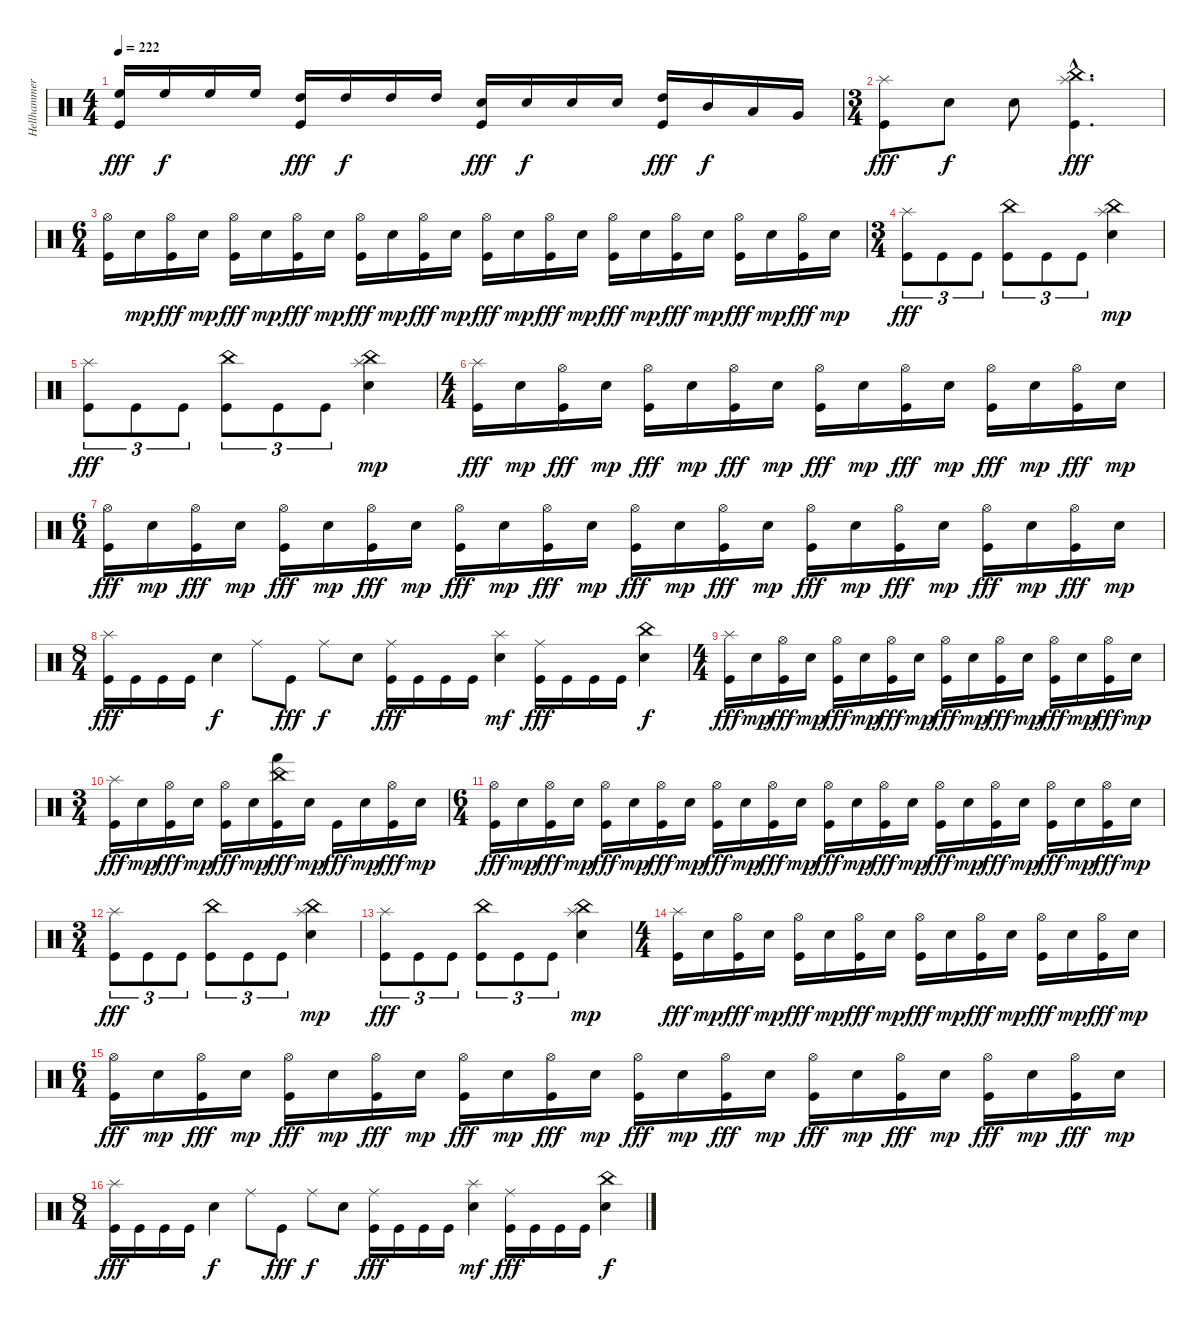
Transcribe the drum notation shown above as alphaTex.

\track ("Hellhammer" "Hellhammer") {instrument percussion}
\staff {score}
\articulation defaults
\ts (4 4)
\tempo 222
\clef neutral
\ks c
("High Floor Tom (hit)" "Kick (hit)").16{dy fff} "High Floor Tom (hit)".16{dy f} "High Floor Tom (hit)".16 "High Floor Tom (hit)".16 ("High Tom (hit)" "Kick (hit)").16{dy fff} "High Tom (hit)".16{dy f} "High Tom (hit)".16 "High Tom (hit)".16 ("Electric Snare (hit)" "Kick (hit)").16{dy fff} "Electric Snare (hit)".16{dy f} "Electric Snare (hit)".16 "Electric Snare (hit)".16 ("High Tom (hit)" "Kick (hit)").16{dy fff} "Mid Tom (hit)".16{dy f} "Low Tom (hit)".16 "Very Low Tom (hit)".16 |
\ts (3 4)
("Splash (hit)" "Kick (hit)").8{dy fff} "Electric Snare (hit)".8{dy f} "Electric Snare (hit)".8 ("Splash (hit)"{hac} "China (hit)"{hac} "Kick (hit)"{hac}).4{d dy fff} |
\ts (6 4)
("Hi-Hat (open)" "Kick (hit)").16 "Electric Snare (hit)".16{dy mp} ("Hi-Hat (open)" "Kick (hit)").16{dy fff} "Electric Snare (hit)".16{dy mp} ("Hi-Hat (open)" "Kick (hit)").16{dy fff} "Electric Snare (hit)".16{dy mp} ("Hi-Hat (open)" "Kick (hit)").16{dy fff} "Electric Snare (hit)".16{dy mp} ("Hi-Hat (open)" "Kick (hit)").16{dy fff} "Electric Snare (hit)".16{dy mp} ("Hi-Hat (open)" "Kick (hit)").16{dy fff} "Electric Snare (hit)".16{dy mp} ("Hi-Hat (open)" "Kick (hit)").16{dy fff} "Electric Snare (hit)".16{dy mp} ("Hi-Hat (open)" "Kick (hit)").16{dy fff} "Electric Snare (hit)".16{dy mp} ("Hi-Hat (open)" "Kick (hit)").16{dy fff} "Electric Snare (hit)".16{dy mp} ("Hi-Hat (open)" "Kick (hit)").16{dy fff} "Electric Snare (hit)".16{dy mp} ("Hi-Hat (open)" "Kick (hit)").16{dy fff} "Electric Snare (hit)".16{dy mp} ("Hi-Hat (open)" "Kick (hit)").16{dy fff} "Electric Snare (hit)".16{dy mp} |
\ts (3 4)
("Splash (hit)" "Kick (hit)").8{tu (3 2) dy fff} "Kick (hit)".8{tu (3 2)} "Kick (hit)".8{tu (3 2)} ("China (hit)" "Kick (hit)").8{tu (3 2)} "Kick (hit)".8{tu (3 2)} "Kick (hit)".8{tu (3 2)} ("Splash (hit)" "China (hit)" "Electric Snare (hit)").4{dy mp} |
("Splash (hit)" "Kick (hit)").8{tu (3 2) dy fff} "Kick (hit)".8{tu (3 2)} "Kick (hit)".8{tu (3 2)} ("China (hit)" "Kick (hit)").8{tu (3 2)} "Kick (hit)".8{tu (3 2)} "Kick (hit)".8{tu (3 2)} ("Splash (hit)" "China (hit)" "Electric Snare (hit)").4{dy mp} |
\ts (4 4)
("Splash (hit)" "Kick (hit)").16{dy fff} "Electric Snare (hit)".16{dy mp} ("Hi-Hat (open)" "Kick (hit)").16{dy fff} "Electric Snare (hit)".16{dy mp} ("Hi-Hat (open)" "Kick (hit)").16{dy fff} "Electric Snare (hit)".16{dy mp} ("Hi-Hat (open)" "Kick (hit)").16{dy fff} "Electric Snare (hit)".16{dy mp} ("Hi-Hat (open)" "Kick (hit)").16{dy fff} "Electric Snare (hit)".16{dy mp} ("Hi-Hat (open)" "Kick (hit)").16{dy fff} "Electric Snare (hit)".16{dy mp} ("Hi-Hat (open)" "Kick (hit)").16{dy fff} "Electric Snare (hit)".16{dy mp} ("Hi-Hat (open)" "Kick (hit)").16{dy fff} "Electric Snare (hit)".16{dy mp} |
\ts (6 4)
("Hi-Hat (open)" "Kick (hit)").16{dy fff} "Electric Snare (hit)".16{dy mp} ("Hi-Hat (open)" "Kick (hit)").16{dy fff} "Electric Snare (hit)".16{dy mp} ("Hi-Hat (open)" "Kick (hit)").16{dy fff} "Electric Snare (hit)".16{dy mp} ("Hi-Hat (open)" "Kick (hit)").16{dy fff} "Electric Snare (hit)".16{dy mp} ("Hi-Hat (open)" "Kick (hit)").16{dy fff} "Electric Snare (hit)".16{dy mp} ("Hi-Hat (open)" "Kick (hit)").16{dy fff} "Electric Snare (hit)".16{dy mp} ("Hi-Hat (open)" "Kick (hit)").16{dy fff} "Electric Snare (hit)".16{dy mp} ("Hi-Hat (open)" "Kick (hit)").16{dy fff} "Electric Snare (hit)".16{dy mp} ("Hi-Hat (open)" "Kick (hit)").16{dy fff} "Electric Snare (hit)".16{dy mp} ("Hi-Hat (open)" "Kick (hit)").16{dy fff} "Electric Snare (hit)".16{dy mp} ("Hi-Hat (open)" "Kick (hit)").16{dy fff} "Electric Snare (hit)".16{dy mp} ("Hi-Hat (open)" "Kick (hit)").16{dy fff} "Electric Snare (hit)".16{dy mp} |
\ts (8 4)
("Splash (hit)" "Kick (hit)").16{dy fff} "Kick (hit)".16 "Kick (hit)".16 "Kick (hit)".16 "Electric Snare (hit)".4{dy f} "Ride (middle)".8 "Kick (hit)".8{dy fff} "Ride (middle)".8{dy f} "Electric Snare (hit)".8 ("Ride (middle)" "Kick (hit)").16{dy fff} "Kick (hit)".16 "Kick (hit)".16 "Kick (hit)".16 ("Splash (hit)" "Electric Snare (hit)").4{dy mf} ("Ride (middle)" "Kick (hit)").16{dy fff} "Kick (hit)".16 "Kick (hit)".16 "Kick (hit)".16 ("China (hit)" "Electric Snare (hit)").4{dy f} |
\ts (4 4)
("Splash (hit)" "Kick (hit)").16{dy fff} "Electric Snare (hit)".16{dy mp} ("Hi-Hat (open)" "Kick (hit)").16{dy fff} "Electric Snare (hit)".16{dy mp} ("Hi-Hat (open)" "Kick (hit)").16{dy fff} "Electric Snare (hit)".16{dy mp} ("Hi-Hat (open)" "Kick (hit)").16{dy fff} "Electric Snare (hit)".16{dy mp} ("Hi-Hat (open)" "Kick (hit)").16{dy fff} "Electric Snare (hit)".16{dy mp} ("Hi-Hat (open)" "Kick (hit)").16{dy fff} "Electric Snare (hit)".16{dy mp} ("Hi-Hat (open)" "Kick (hit)").16{dy fff} "Electric Snare (hit)".16{dy mp} ("Hi-Hat (open)" "Kick (hit)").16{dy fff} "Electric Snare (hit)".16{dy mp} |
\ts (3 4)
("Splash (hit)" "Kick (hit)").16{dy fff} "Electric Snare (hit)".16{dy mp} ("Hi-Hat (open)" "Kick (hit)").16{dy fff} "Electric Snare (hit)".16{dy mp} ("Hi-Hat (open)" "Kick (hit)").16{dy fff} "Electric Snare (hit)".16{dy mp} ("China (hit)" "Hand (hit)" "Kick (hit)").16{dy fff} "Electric Snare (hit)".16{dy mp} "Kick (hit)".16{dy fff} "Electric Snare (hit)".16{dy mp} ("Hi-Hat (open)" "Kick (hit)").16{dy fff} "Electric Snare (hit)".16{dy mp} |
\ts (6 4)
("Hi-Hat (open)" "Kick (hit)").16{dy fff} "Electric Snare (hit)".16{dy mp} ("Hi-Hat (open)" "Kick (hit)").16{dy fff} "Electric Snare (hit)".16{dy mp} ("Hi-Hat (open)" "Kick (hit)").16{dy fff} "Electric Snare (hit)".16{dy mp} ("Hi-Hat (open)" "Kick (hit)").16{dy fff} "Electric Snare (hit)".16{dy mp} ("Hi-Hat (open)" "Kick (hit)").16{dy fff} "Electric Snare (hit)".16{dy mp} ("Hi-Hat (open)" "Kick (hit)").16{dy fff} "Electric Snare (hit)".16{dy mp} ("Hi-Hat (open)" "Kick (hit)").16{dy fff} "Electric Snare (hit)".16{dy mp} ("Hi-Hat (open)" "Kick (hit)").16{dy fff} "Electric Snare (hit)".16{dy mp} ("Hi-Hat (open)" "Kick (hit)").16{dy fff} "Electric Snare (hit)".16{dy mp} ("Hi-Hat (open)" "Kick (hit)").16{dy fff} "Electric Snare (hit)".16{dy mp} ("Hi-Hat (open)" "Kick (hit)").16{dy fff} "Electric Snare (hit)".16{dy mp} ("Hi-Hat (open)" "Kick (hit)").16{dy fff} "Electric Snare (hit)".16{dy mp} |
\ts (3 4)
("Splash (hit)" "Kick (hit)").8{tu (3 2) dy fff} "Kick (hit)".8{tu (3 2)} "Kick (hit)".8{tu (3 2)} ("China (hit)" "Kick (hit)").8{tu (3 2)} "Kick (hit)".8{tu (3 2)} "Kick (hit)".8{tu (3 2)} ("Splash (hit)" "China (hit)" "Electric Snare (hit)").4{dy mp} |
("Splash (hit)" "Kick (hit)").8{tu (3 2) dy fff} "Kick (hit)".8{tu (3 2)} "Kick (hit)".8{tu (3 2)} ("China (hit)" "Kick (hit)").8{tu (3 2)} "Kick (hit)".8{tu (3 2)} "Kick (hit)".8{tu (3 2)} ("Splash (hit)" "China (hit)" "Electric Snare (hit)").4{dy mp} |
\ts (4 4)
("Splash (hit)" "Kick (hit)").16{dy fff} "Electric Snare (hit)".16{dy mp} ("Hi-Hat (open)" "Kick (hit)").16{dy fff} "Electric Snare (hit)".16{dy mp} ("Hi-Hat (open)" "Kick (hit)").16{dy fff} "Electric Snare (hit)".16{dy mp} ("Hi-Hat (open)" "Kick (hit)").16{dy fff} "Electric Snare (hit)".16{dy mp} ("Hi-Hat (open)" "Kick (hit)").16{dy fff} "Electric Snare (hit)".16{dy mp} ("Hi-Hat (open)" "Kick (hit)").16{dy fff} "Electric Snare (hit)".16{dy mp} ("Hi-Hat (open)" "Kick (hit)").16{dy fff} "Electric Snare (hit)".16{dy mp} ("Hi-Hat (open)" "Kick (hit)").16{dy fff} "Electric Snare (hit)".16{dy mp} |
\ts (6 4)
("Hi-Hat (open)" "Kick (hit)").16{dy fff} "Electric Snare (hit)".16{dy mp} ("Hi-Hat (open)" "Kick (hit)").16{dy fff} "Electric Snare (hit)".16{dy mp} ("Hi-Hat (open)" "Kick (hit)").16{dy fff} "Electric Snare (hit)".16{dy mp} ("Hi-Hat (open)" "Kick (hit)").16{dy fff} "Electric Snare (hit)".16{dy mp} ("Hi-Hat (open)" "Kick (hit)").16{dy fff} "Electric Snare (hit)".16{dy mp} ("Hi-Hat (open)" "Kick (hit)").16{dy fff} "Electric Snare (hit)".16{dy mp} ("Hi-Hat (open)" "Kick (hit)").16{dy fff} "Electric Snare (hit)".16{dy mp} ("Hi-Hat (open)" "Kick (hit)").16{dy fff} "Electric Snare (hit)".16{dy mp} ("Hi-Hat (open)" "Kick (hit)").16{dy fff} "Electric Snare (hit)".16{dy mp} ("Hi-Hat (open)" "Kick (hit)").16{dy fff} "Electric Snare (hit)".16{dy mp} ("Hi-Hat (open)" "Kick (hit)").16{dy fff} "Electric Snare (hit)".16{dy mp} ("Hi-Hat (open)" "Kick (hit)").16{dy fff} "Electric Snare (hit)".16{dy mp} |
\ts (8 4)
("Splash (hit)" "Kick (hit)").16{dy fff} "Kick (hit)".16 "Kick (hit)".16 "Kick (hit)".16 "Electric Snare (hit)".4{dy f} "Ride (middle)".8 "Kick (hit)".8{dy fff} "Ride (middle)".8{dy f} "Electric Snare (hit)".8 ("Ride (middle)" "Kick (hit)").16{dy fff} "Kick (hit)".16 "Kick (hit)".16 "Kick (hit)".16 ("Splash (hit)" "Electric Snare (hit)").4{dy mf} ("Ride (middle)" "Kick (hit)").16{dy fff} "Kick (hit)".16 "Kick (hit)".16 "Kick (hit)".16 ("China (hit)" "Electric Snare (hit)").4{dy f}
